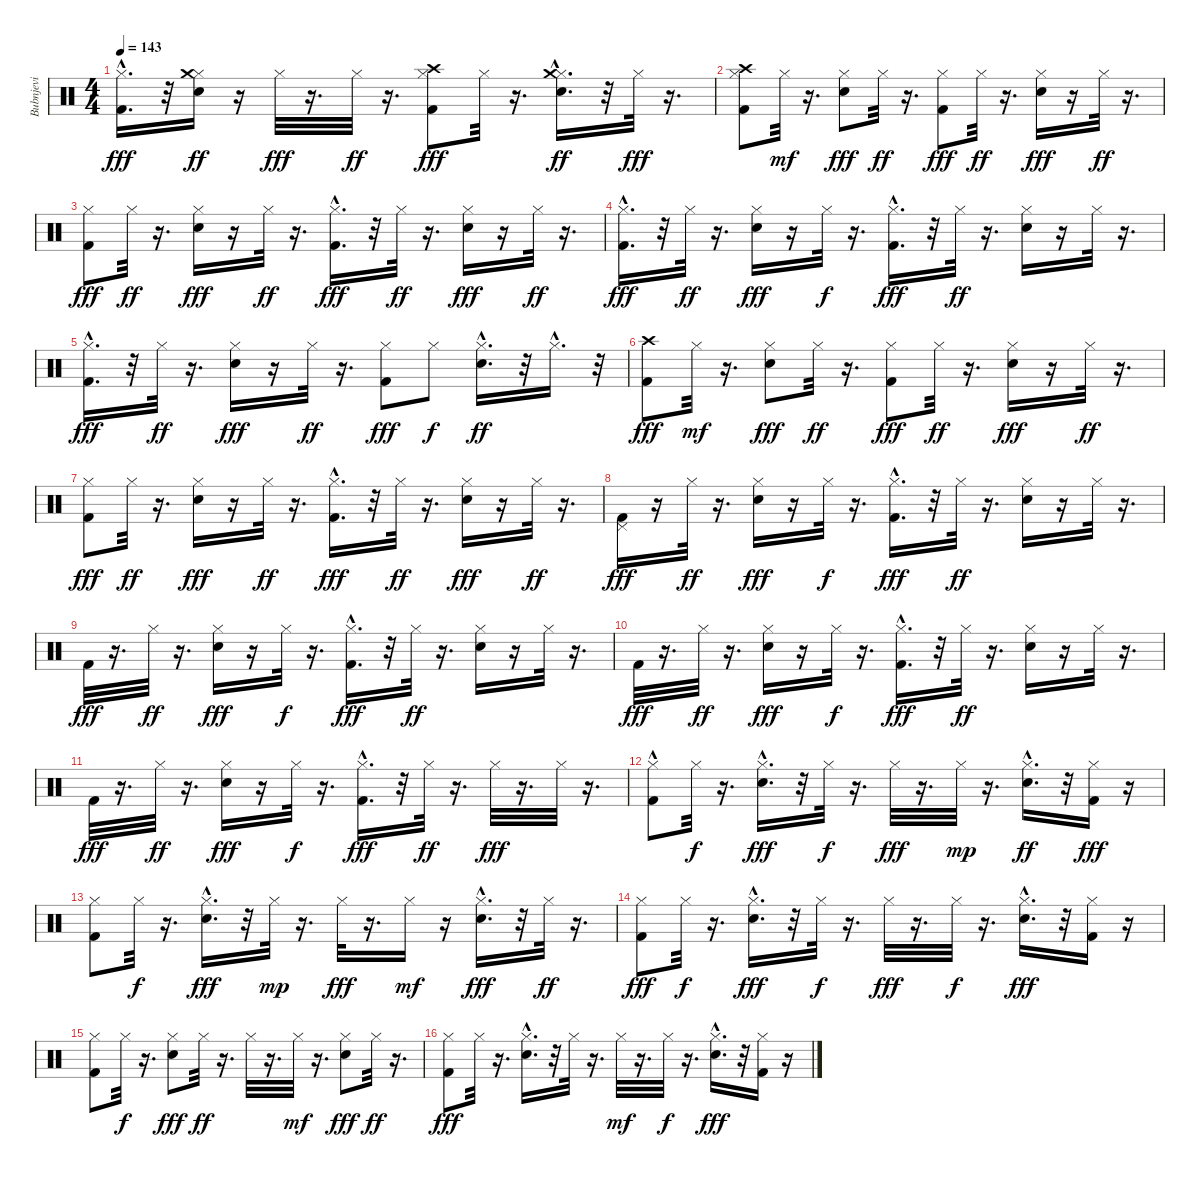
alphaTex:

\track ("Bubnjevi" "Bubnjevi") {instrument percussion}
\staff {score}
\articulation defaults
\ts (4 4)
\tempo 143
\clef neutral
\ks c
("Hi-Hat (closed)" "Kick (hit) 2"{hac}).16{d dy fff} r.32 ("Snare (hit) 2" "Hi-Hat (closed)" "Crash medium (hit)").16{dy ff} r.16 "Hi-Hat (closed)".32{dy fff} r.16{d} "Hi-Hat (closed)".32{dy ff} r.16{d} ("Hi-Hat (closed)" "Crash high (hit)" "Kick (hit) 2").8{dy fff} "Hi-Hat (closed)".32 r.16{d} ("Snare (hit) 2"{hac} "Hi-Hat (closed)" "Crash medium (hit)").16{d dy ff} r.32 "Hi-Hat (closed)".32{dy fff} r.16{d} |
("Hi-Hat (closed)" "Crash high (hit)" "Kick (hit) 2").8 "Hi-Hat (closed)".32{dy mf} r.16{d} ("Snare (hit) 2" "Hi-Hat (closed)").8{dy fff} "Hi-Hat (closed)".32{dy ff} r.16{d} ("Hi-Hat (closed)" "Kick (hit) 2").8{dy fff} "Hi-Hat (closed)".32{dy ff} r.16{d} ("Snare (hit) 2" "Hi-Hat (closed)").16{dy fff} r.16 "Hi-Hat (closed)".32{dy ff} r.16{d} |
("Hi-Hat (closed)" "Kick (hit) 2").8{dy fff} "Hi-Hat (closed)".32{dy ff} r.16{d} ("Snare (hit) 2" "Hi-Hat (closed)").16{dy fff} r.16 "Hi-Hat (closed)".32{dy ff} r.16{d} ("Hi-Hat (closed)" "Kick (hit) 2"{hac}).16{d dy fff} r.32 "Hi-Hat (closed)".32{dy ff} r.16{d} ("Hi-Hat (closed)" "Snare (hit) 2").16{dy fff} r.16 "Hi-Hat (closed)".32{dy ff} r.16{d} |
("Hi-Hat (closed)" "Kick (hit) 2"{hac}).16{d dy fff} r.32 "Hi-Hat (closed)".32{dy ff} r.16{d} ("Snare (hit) 2" "Hi-Hat (closed)").16{dy fff} r.16 "Hi-Hat (closed)".32{dy f} r.16{d} ("Hi-Hat (closed)" "Kick (hit) 2"{hac}).16{d dy fff} r.32 "Hi-Hat (closed)".32{dy ff} r.16{d} ("Snare (hit) 2" "Hi-Hat (closed)").16 r.16 "Hi-Hat (closed)".32 r.16{d} |
("Hi-Hat (closed)" "Kick (hit) 2"{hac}).16{d dy fff} r.32 "Hi-Hat (closed)".32{dy ff} r.16{d} ("Snare (hit) 2" "Hi-Hat (closed)").16{dy fff} r.16 "Hi-Hat (closed)".32{dy ff} r.16{d} ("Hi-Hat (closed)" "Kick (hit) 2").8{dy fff} "Hi-Hat (closed)".8{dy f} ("Snare (hit) 2"{hac} "Hi-Hat (closed)").16{d dy ff} r.32 "Hi-Hat (closed)"{hac}.16{d} r.32 |
("Crash high (hit)" "Kick (hit) 2").8{dy fff} "Hi-Hat (closed)".32{dy mf} r.16{d} ("Snare (hit) 2" "Hi-Hat (closed)").8{dy fff} "Hi-Hat (closed)".32{dy ff} r.16{d} ("Hi-Hat (closed)" "Kick (hit) 2").8{dy fff} "Hi-Hat (closed)".32{dy ff} r.16{d} ("Snare (hit) 2" "Hi-Hat (closed)").16{dy fff} r.16 "Hi-Hat (closed)".32{dy ff} r.16{d} |
("Hi-Hat (closed)" "Kick (hit) 2").8{dy fff} "Hi-Hat (closed)".32{dy ff} r.16{d} ("Snare (hit) 2" "Hi-Hat (closed)").16{dy fff} r.16 "Hi-Hat (closed)".32{dy ff} r.16{d} ("Hi-Hat (closed)" "Kick (hit) 2"{hac}).16{d dy fff} r.32 "Hi-Hat (closed)".32{dy ff} r.16{d} ("Hi-Hat (closed)" "Snare (hit) 2").16{dy fff} r.16 "Hi-Hat (closed)".32{dy ff} r.16{d} |
("Pedal Hi-Hat (hit)" "Kick (hit) 2").16{dy fff} r.16 "Hi-Hat (closed)".32{dy ff} r.16{d} ("Snare (hit) 2" "Hi-Hat (closed)").16{dy fff} r.16 "Hi-Hat (closed)".32{dy f} r.16{d} ("Hi-Hat (closed)" "Kick (hit) 2"{hac}).16{d dy fff} r.32 "Hi-Hat (closed)".32{dy ff} r.16{d} ("Snare (hit) 2" "Hi-Hat (closed)").16 r.16 "Hi-Hat (closed)".32 r.16{d} |
"Kick (hit) 2".32{dy fff} r.16{d} "Hi-Hat (closed)".32{dy ff} r.16{d} ("Snare (hit) 2" "Hi-Hat (closed)").16{dy fff} r.16 "Hi-Hat (closed)".32{dy f} r.16{d} ("Hi-Hat (closed)" "Kick (hit) 2"{hac}).16{d dy fff} r.32 "Hi-Hat (closed)".32{dy ff} r.16{d} ("Snare (hit) 2" "Hi-Hat (closed)").16 r.16 "Hi-Hat (closed)".32 r.16{d} |
"Kick (hit) 2".32{dy fff} r.16{d} "Hi-Hat (closed)".32{dy ff} r.16{d} ("Snare (hit) 2" "Hi-Hat (closed)").16{dy fff} r.16 "Hi-Hat (closed)".32{dy f} r.16{d} ("Hi-Hat (closed)" "Kick (hit) 2"{hac}).16{d dy fff} r.32 "Hi-Hat (closed)".32{dy ff} r.16{d} ("Snare (hit) 2" "Hi-Hat (closed)").16 r.16 "Hi-Hat (closed)".32 r.16{d} |
"Kick (hit) 2".32{dy fff} r.16{d} "Hi-Hat (closed)".32{dy ff} r.16{d} ("Snare (hit) 2" "Hi-Hat (closed)").16{dy fff} r.16 "Hi-Hat (closed)".32{dy f} r.16{d} ("Hi-Hat (closed)" "Kick (hit) 2"{hac}).16{d dy fff} r.32 "Hi-Hat (closed)".32{dy ff} r.16{d} "Hi-Hat (closed)".32{dy fff} r.16{d} "Hi-Hat (closed)".32 r.16{d} |
("Hi-Hat (closed)" "Kick (hit) 2"{hac}).8 "Hi-Hat (closed)".32{dy f} r.16{d} ("Snare (hit) 2"{hac} "Hi-Hat (closed)").16{d dy fff} r.32 "Hi-Hat (closed)".32{dy f} r.16{d} "Hi-Hat (closed)".32{dy fff} r.16{d} "Hi-Hat (closed)".32{dy mp} r.16{d} ("Snare (hit) 2"{hac} "Hi-Hat (closed)").16{d dy ff} r.32 ("Hi-Hat (closed)" "Kick (hit) 2").16{dy fff} r.16 |
("Hi-Hat (closed)" "Kick (hit) 2").8 "Hi-Hat (closed)".32{dy f} r.16{d} ("Snare (hit) 2"{hac} "Hi-Hat (closed)").16{d dy fff} r.32 "Hi-Hat (closed)".32{dy mp} r.16{d} "Hi-Hat (closed)".32{dy fff} r.16{d} "Hi-Hat (closed)".16{dy mf} r.16 ("Hi-Hat (closed)" "Snare (hit) 2"{hac}).16{d dy fff} r.32 "Hi-Hat (closed)".32{dy ff} r.16{d} |
("Hi-Hat (closed)" "Kick (hit) 2").8{dy fff} "Hi-Hat (closed)".32{dy f} r.16{d} ("Snare (hit) 2"{hac} "Hi-Hat (closed)").16{d dy fff} r.32 "Hi-Hat (closed)".32{dy f} r.16{d} "Hi-Hat (closed)".32{dy fff} r.16{d} "Hi-Hat (closed)".32{dy f} r.16{d} ("Snare (hit) 2"{hac} "Hi-Hat (closed)").16{d dy fff} r.32 ("Hi-Hat (closed)" "Kick (hit) 2").16 r.16 |
("Hi-Hat (closed)" "Kick (hit) 2").8 "Hi-Hat (closed)".32{dy f} r.16{d} ("Snare (hit) 2" "Hi-Hat (closed)").8{dy fff} "Hi-Hat (closed)".32{dy ff} r.16{d} "Hi-Hat (closed)".32 r.16{d} "Hi-Hat (closed)".32{dy mf} r.16{d} ("Snare (hit) 2" "Hi-Hat (closed)").8{dy fff} "Hi-Hat (closed)".32{dy ff} r.16{d} |
("Hi-Hat (closed)" "Kick (hit) 2").8{dy fff} "Hi-Hat (closed)".32 r.16{d} ("Snare (hit) 2"{hac} "Hi-Hat (closed)").16{d} r.32 "Hi-Hat (closed)".32 r.16{d} "Hi-Hat (closed)".32{dy mf} r.16{d} "Hi-Hat (closed)".32{dy f} r.16{d} ("Snare (hit) 2"{hac} "Hi-Hat (closed)").16{d dy fff} r.32 ("Hi-Hat (closed)" "Kick (hit) 2").16 r.16
